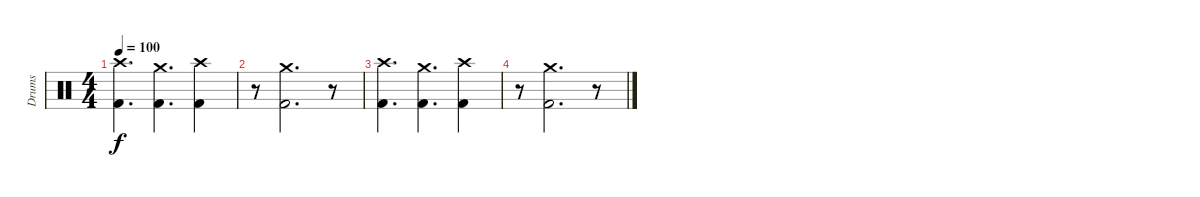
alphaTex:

\track ("Drums" "Drums") {instrument percussion}
\staff {score}
\articulation defaults
\ts (4 4)
\tempo 100
\clef neutral
\ks c
("Crash high (hit)" "Kick (hit) 2").4{d dy f} ("Crash medium (hit)" "Kick (hit) 2").4{d} ("Crash high (hit)" "Kick (hit) 2").4 |
r.8 ("Crash medium (hit)" "Kick (hit) 2").2{d} r.8 |
("Crash high (hit)" "Kick (hit) 2").4{d} ("Crash medium (hit)" "Kick (hit) 2").4{d} ("Crash high (hit)" "Kick (hit) 2").4 |
r.8 ("Crash medium (hit)" "Kick (hit) 2").2{d} r.8
